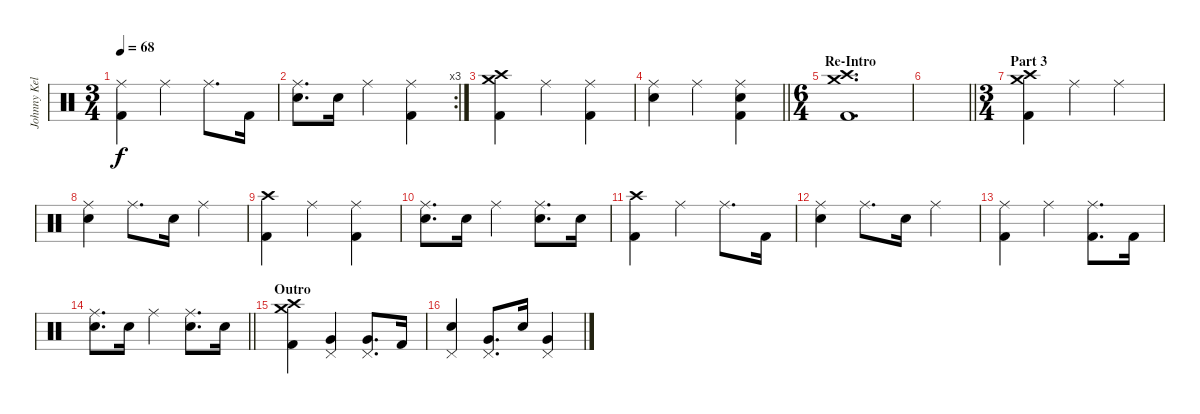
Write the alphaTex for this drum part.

\track ("Johnny Kelly" "Johnny Kel") {instrument percussion}
\staff {score}
\articulation defaults
\ts (3 4)
\tempo 68
\clef neutral
\ks c
("Ride (middle)" "Kick (hit) 2").4{dy f} "Ride (middle)".4 "Ride (middle)".8{d} "Kick (hit) 2".16 |
\rc 3
("Ride (middle)" "Electric Snare (hit)").8{d} "Electric Snare (hit)".16 "Ride (middle)".4 ("Ride (middle)" "Kick (hit) 2").4 |
("Crash high (hit)" "Crash medium (hit)" "Kick (hit) 2").4 "Ride (middle)".4 ("Ride (middle)" "Kick (hit) 2").4 |
\barLineRight lightlight
("Ride (middle)" "Electric Snare (hit)").4 "Ride (middle)".4 ("Ride (middle)" "Electric Snare (hit)" "Kick (hit) 2").4 |
\ts (6 4)
\section ("" "Re-Intro")
("Crash high (hit)" "Crash medium (hit)" "Kick (hit) 2").1{d} |
\barLineRight lightlight
|
\ts (3 4)
\section ("" "Part 3")
("Crash high (hit)" "Crash medium (hit)" "Kick (hit) 2").4 "Ride (middle)".4 "Ride (middle)".4 |
("Ride (middle)" "Electric Snare (hit)").4 "Ride (middle)".8{d} "Electric Snare (hit)".16 "Ride (middle)".4 |
("Crash high (hit)" "Kick (hit) 2").4 "Ride (middle)".4 ("Ride (middle)" "Kick (hit) 2").4 |
("Ride (middle)" "Electric Snare (hit)").8{d} "Electric Snare (hit)".16 "Ride (middle)".4 ("Ride (middle)" "Electric Snare (hit)").8{d} "Electric Snare (hit)".16 |
("Crash high (hit)" "Kick (hit) 2").4 "Ride (middle)".4 "Ride (middle)".8{d} "Kick (hit) 2".16 |
("Ride (middle)" "Electric Snare (hit)").4 "Ride (middle)".8{d} "Electric Snare (hit)".16 "Ride (middle)".4 |
("Ride (middle)" "Kick (hit) 2").4 "Ride (middle)".4 ("Ride (middle)" "Kick (hit) 2").8{d} "Kick (hit) 2".16 |
\barLineRight lightlight
("Ride (middle)" "Electric Snare (hit)").8{d} "Electric Snare (hit)".16 "Ride (middle)".4 ("Ride (middle)" "Electric Snare (hit)").8{d} "Electric Snare (hit)".16 |
\section ("" "Outro")
("Crash high (hit)" "Crash medium (hit)" "Kick (hit) 2").4 ("Pedal Hi-Hat (hit)" "Very Low Tom (hit)").4 ("Pedal Hi-Hat (hit)" "Very Low Tom (hit)").8{d} "Kick (hit) 2".16 |
("Pedal Hi-Hat (hit)" "Electric Snare (hit)").4 ("Pedal Hi-Hat (hit)" "Very Low Tom (hit)").8{d} "Electric Snare (hit)".16 ("Pedal Hi-Hat (hit)" "Very Low Tom (hit)").4
